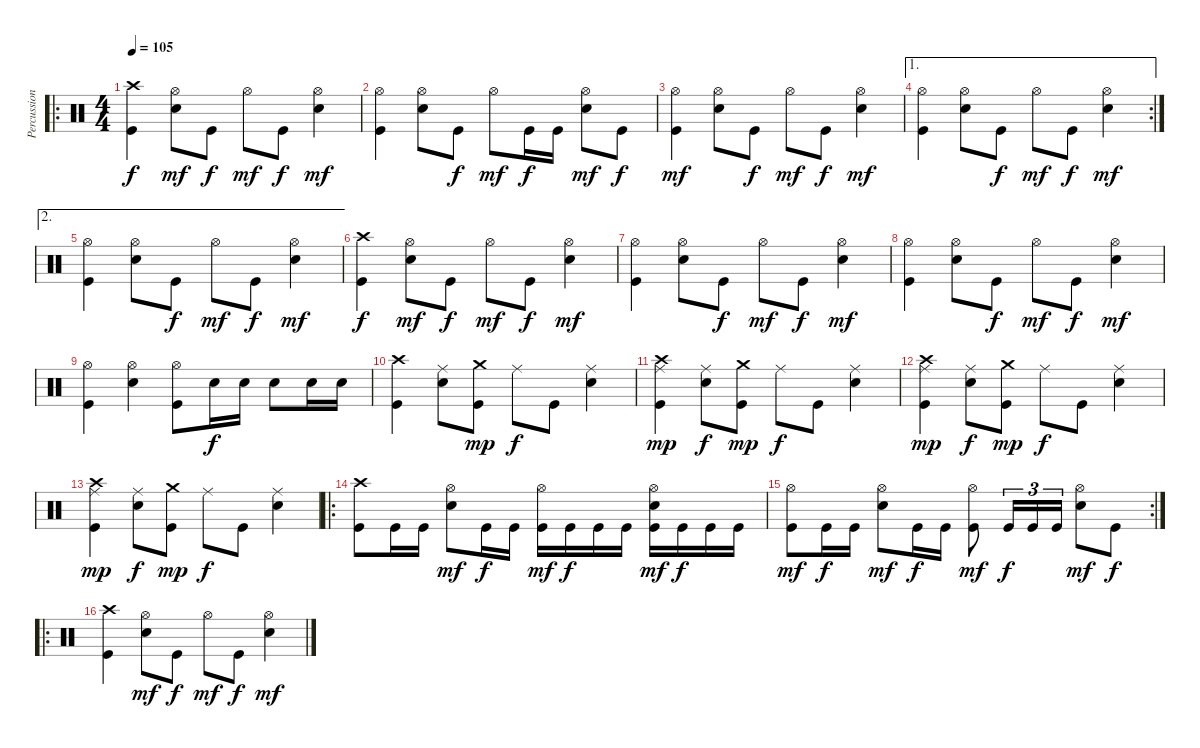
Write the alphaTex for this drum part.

\track ("Percussions" "Percussion") {instrument percussion}
\staff {score}
\articulation defaults
\ro
\ts (4 4)
\tempo 105
\clef neutral
\ks c
("Kick (hit)" "Crash high (hit)").4{dy f} ("Electric Snare (hit)" "Hi-Hat (open)").8{dy mf} "Kick (hit)".8{dy f} "Hi-Hat (open)".8{dy mf} "Kick (hit)".8{dy f} ("Electric Snare (hit)" "Hi-Hat (open)").4{dy mf} |
("Kick (hit)" "Hi-Hat (open)").4 ("Electric Snare (hit)" "Hi-Hat (open)").8 "Kick (hit)".8{dy f} "Hi-Hat (open)".8{dy mf} "Kick (hit)".16{dy f} "Kick (hit)".16 ("Electric Snare (hit)" "Hi-Hat (open)").8{dy mf} "Kick (hit)".8{dy f} |
("Kick (hit)" "Hi-Hat (open)").4{dy mf} ("Electric Snare (hit)" "Hi-Hat (open)").8 "Kick (hit)".8{dy f} "Hi-Hat (open)".8{dy mf} "Kick (hit)".8{dy f} ("Electric Snare (hit)" "Hi-Hat (open)").4{dy mf} |
\ae 1
\rc 2
("Kick (hit)" "Hi-Hat (open)").4 ("Electric Snare (hit)" "Hi-Hat (open)").8 "Kick (hit)".8{dy f} "Hi-Hat (open)".8{dy mf} "Kick (hit)".8{dy f} ("Electric Snare (hit)" "Hi-Hat (open)").4{dy mf} |
\ae 2
("Kick (hit)" "Hi-Hat (open)").4 ("Electric Snare (hit)" "Hi-Hat (open)").8 "Kick (hit)".8{dy f} "Hi-Hat (open)".8{dy mf} "Kick (hit)".8{dy f} ("Electric Snare (hit)" "Hi-Hat (open)").4{dy mf} |
("Kick (hit)" "Crash high (hit)").4{dy f} ("Electric Snare (hit)" "Hi-Hat (open)").8{dy mf} "Kick (hit)".8{dy f} "Hi-Hat (open)".8{dy mf} "Kick (hit)".8{dy f} ("Electric Snare (hit)" "Hi-Hat (open)").4{dy mf} |
("Kick (hit)" "Hi-Hat (open)").4 ("Electric Snare (hit)" "Hi-Hat (open)").8 "Kick (hit)".8{dy f} "Hi-Hat (open)".8{dy mf} "Kick (hit)".8{dy f} ("Electric Snare (hit)" "Hi-Hat (open)").4{dy mf} |
("Kick (hit)" "Hi-Hat (open)").4 ("Electric Snare (hit)" "Hi-Hat (open)").8 "Kick (hit)".8{dy f} "Hi-Hat (open)".8{dy mf} "Kick (hit)".8{dy f} ("Electric Snare (hit)" "Hi-Hat (open)").4{dy mf} |
("Kick (hit)" "Hi-Hat (open)").4 ("Electric Snare (hit)" "Hi-Hat (open)").4 ("Kick (hit)" "Hi-Hat (open)").8 "Electric Snare (hit)".16{dy f} "Electric Snare (hit)".16 "Electric Snare (hit)".8 "Electric Snare (hit)".16 "Electric Snare (hit)".16 |
("Kick (hit)" "Crash high (hit)").4 ("Electric Snare (hit)" "Ride (middle)").8 ("Kick (hit)" "Crash medium (hit)").8{dy mp} "Ride (middle)".8{dy f} "Kick (hit)".8 ("Electric Snare (hit)" "Ride (middle)").4 |
("Kick (hit)" "Ride (middle)" "Crash high (hit)").4{dy mp} ("Electric Snare (hit)" "Ride (middle)").8{dy f} ("Kick (hit)" "Crash medium (hit)").8{dy mp} "Ride (middle)".8{dy f} "Kick (hit)".8 ("Electric Snare (hit)" "Ride (middle)").4 |
("Kick (hit)" "Ride (middle)" "Crash high (hit)").4{dy mp} ("Electric Snare (hit)" "Ride (middle)").8{dy f} ("Kick (hit)" "Crash medium (hit)").8{dy mp} "Ride (middle)".8{dy f} "Kick (hit)".8 ("Electric Snare (hit)" "Ride (middle)").4 |
("Kick (hit)" "Ride (middle)" "Crash high (hit)").4{dy mp} ("Electric Snare (hit)" "Ride (middle)").8{dy f} ("Kick (hit)" "Crash medium (hit)").8{dy mp} "Ride (middle)".8{dy f} "Kick (hit)".8 ("Electric Snare (hit)" "Ride (middle)").4 |
\ro
("Kick (hit)" "Crash high (hit)").8 "Kick (hit)".16 "Kick (hit)".16 ("Electric Snare (hit)" "Hi-Hat (open)").8{dy mf} "Kick (hit)".16{dy f} "Kick (hit)".16 ("Kick (hit)" "Hi-Hat (open)").16{dy mf} "Kick (hit)".16{dy f} "Kick (hit)".16 "Kick (hit)".16 ("Kick (hit)" "Electric Snare (hit)" "Hi-Hat (open)").16{dy mf} "Kick (hit)".16{dy f} "Kick (hit)".16 "Kick (hit)".16 |
\rc 2
("Kick (hit)" "Hi-Hat (open)").8{dy mf} "Kick (hit)".16{dy f} "Kick (hit)".16 ("Electric Snare (hit)" "Hi-Hat (open)").8{dy mf} "Kick (hit)".16{dy f} "Kick (hit)".16 ("Kick (hit)" "Hi-Hat (open)").8{dy mf} "Kick (hit)".16{tu (3 2) dy f} "Kick (hit)".16{tu (3 2)} "Kick (hit)".16{tu (3 2)} ("Electric Snare (hit)" "Hi-Hat (open)").8{dy mf} "Kick (hit)".8{dy f} |
\ro
("Kick (hit)" "Crash high (hit)").4 ("Electric Snare (hit)" "Hi-Hat (open)").8{dy mf} "Kick (hit)".8{dy f} "Hi-Hat (open)".8{dy mf} "Kick (hit)".8{dy f} ("Electric Snare (hit)" "Hi-Hat (open)").4{dy mf}
